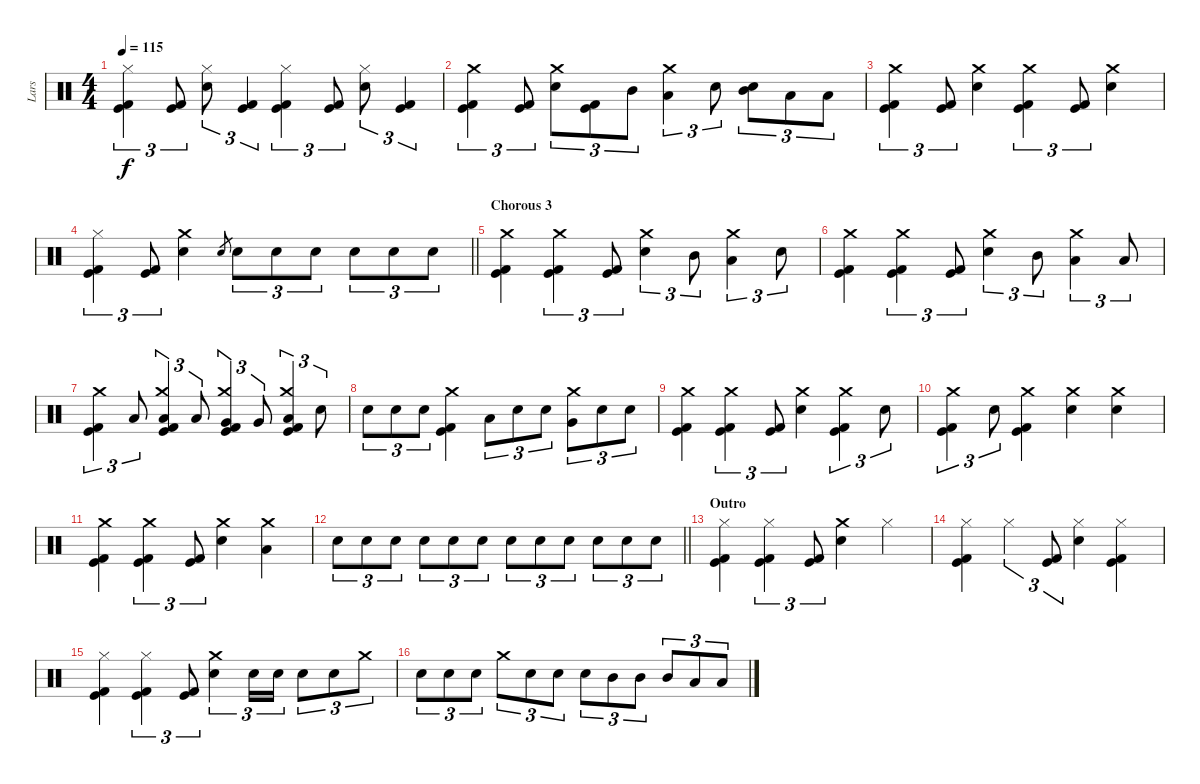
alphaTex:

\track ("Lars" "Lars") {instrument percussion}
\staff {score}
\articulation defaults
\ts (4 4)
\tempo 115
\clef neutral
\ks c
("Hi-Hat (closed)" "Kick (hit)" "Kick (hit) 2").4{tu (3 2) dy f} ("Kick (hit)" "Kick (hit) 2").8{tu (3 2)} ("Hi-Hat (closed)" "Electric Snare (hit)").8{tu (3 2)} ("Kick (hit)" "Kick (hit) 2").4{tu (3 2)} ("Hi-Hat (closed)" "Kick (hit)" "Kick (hit) 2").4{tu (3 2)} ("Kick (hit)" "Kick (hit) 2").8{tu (3 2)} ("Hi-Hat (closed)" "Electric Snare (hit)").8{tu (3 2)} ("Kick (hit)" "Kick (hit) 2").4{tu (3 2)} |
("Crash medium (hit)" "Kick (hit)" "Kick (hit) 2").4{tu (3 2)} ("Kick (hit)" "Kick (hit) 2").8{tu (3 2)} ("Crash medium (hit)" "Electric Snare (hit)").8{tu (3 2)} ("Kick (hit)" "Kick (hit) 2").8{tu (3 2)} "Mid Tom (hit)".8{tu (3 2)} ("Crash medium (hit)" "Low Tom (hit)").4{tu (3 2)} "Electric Snare (hit)".8{tu (3 2)} ("Electric Snare (hit)" "Mid Tom (hit)").8{tu (3 2)} "Low Tom (hit)".8{tu (3 2)} "Low Tom (hit)".8{tu (3 2)} |
("Crash medium (hit)" "Kick (hit)" "Kick (hit) 2").4{tu (3 2)} ("Kick (hit)" "Kick (hit) 2").8{tu (3 2)} ("Crash medium (hit)" "Electric Snare (hit)").4 ("Crash medium (hit)" "Kick (hit)" "Kick (hit) 2").4{tu (3 2)} ("Kick (hit)" "Kick (hit) 2").8{tu (3 2)} ("Crash medium (hit)" "Electric Snare (hit)").4 |
\barLineRight lightlight
("Hi-Hat (closed)" "Kick (hit)" "Kick (hit) 2").4{tu (3 2)} ("Kick (hit)" "Kick (hit) 2").8{tu (3 2)} ("Crash medium (hit)" "Electric Snare (hit)").4 "Electric Snare (hit)".8{gr} "Electric Snare (hit)".8{tu (3 2)} "Electric Snare (hit)".8{tu (3 2)} "Electric Snare (hit)".8{tu (3 2)} "Electric Snare (hit)".8{tu (3 2)} "Electric Snare (hit)".8{tu (3 2)} "Electric Snare (hit)".8{tu (3 2)} |
\section ("" "Chorous 3")
("Crash medium (hit)" "Kick (hit)" "Kick (hit) 2").4 ("Crash medium (hit)" "Kick (hit)" "Kick (hit) 2").4{tu (3 2)} ("Kick (hit)" "Kick (hit) 2").8{tu (3 2)} ("Crash medium (hit)" "Electric Snare (hit)").4{tu (3 2)} "Mid Tom (hit)".8{tu (3 2)} ("Crash medium (hit)" "Low Tom (hit)").4{tu (3 2)} "Electric Snare (hit)".8{tu (3 2)} |
("Crash medium (hit)" "Kick (hit)" "Kick (hit) 2").4 ("Crash medium (hit)" "Kick (hit)" "Kick (hit) 2").4{tu (3 2)} ("Kick (hit)" "Kick (hit) 2").8{tu (3 2)} ("Crash medium (hit)" "Electric Snare (hit)").4{tu (3 2)} "Mid Tom (hit)".8{tu (3 2)} ("Crash medium (hit)" "Low Tom (hit)").4{tu (3 2)} "Low Tom (hit)".8{tu (3 2)} |
("Crash medium (hit)" "Kick (hit)" "Kick (hit) 2").4{tu (3 2)} "Low Tom (hit)".8{tu (3 2)} ("Crash medium (hit)" "Low Tom (hit)" "Kick (hit)" "Kick (hit) 2").4{tu (3 2)} "Low Tom (hit)".8{tu (3 2)} ("Crash medium (hit)" "Very Low Tom (hit)" "Kick (hit)" "Kick (hit) 2").4{tu (3 2)} "Very Low Tom (hit)".8{tu (3 2)} ("Crash medium (hit)" "Low Floor Tom (hit)" "Kick (hit)" "Kick (hit) 2").4{tu (3 2)} "Electric Snare (hit)".8{tu (3 2)} |
"Electric Snare (hit)".8{tu (3 2)} "Electric Snare (hit)".8{tu (3 2)} "Electric Snare (hit)".8{tu (3 2)} ("Crash medium (hit)" "Kick (hit)" "Kick (hit) 2").4 "Low Tom (hit)".8{tu (3 2)} "Electric Snare (hit)".8{tu (3 2)} "Electric Snare (hit)".8{tu (3 2)} ("Crash medium (hit)" "Very Low Tom (hit)").8{tu (3 2)} "Electric Snare (hit)".8{tu (3 2)} "Electric Snare (hit)".8{tu (3 2)} |
("Crash medium (hit)" "Kick (hit)" "Kick (hit) 2").4 ("Crash medium (hit)" "Kick (hit)" "Kick (hit) 2").4{tu (3 2)} ("Kick (hit)" "Kick (hit) 2").8{tu (3 2)} ("Crash medium (hit)" "Electric Snare (hit)").4 ("Crash medium (hit)" "Kick (hit)" "Kick (hit) 2").4{tu (3 2)} "Electric Snare (hit)".8{tu (3 2)} |
("Crash medium (hit)" "Kick (hit)" "Kick (hit) 2").4{tu (3 2)} "Electric Snare (hit)".8{tu (3 2)} ("Crash medium (hit)" "Kick (hit)" "Kick (hit) 2").4 ("Crash medium (hit)" "Electric Snare (hit)").4 ("Crash medium (hit)" "Electric Snare (hit)").4 |
("Crash medium (hit)" "Kick (hit)" "Kick (hit) 2").4 ("Crash medium (hit)" "Kick (hit)" "Kick (hit) 2").4{tu (3 2)} ("Kick (hit)" "Kick (hit) 2").8{tu (3 2)} ("Crash medium (hit)" "Electric Snare (hit)").4 ("Crash medium (hit)" "Low Tom (hit)").4 |
\barLineRight lightlight "Electric Snare (hit)".8{tu (3 2)} "Electric Snare (hit)".8{tu (3 2)} "Electric Snare (hit)".8{tu (3 2)} "Electric Snare (hit)".8{tu (3 2)} "Electric Snare (hit)".8{tu (3 2)} "Electric Snare (hit)".8{tu (3 2)} "Electric Snare (hit)".8{tu (3 2)} "Electric Snare (hit)".8{tu (3 2)} "Electric Snare (hit)".8{tu (3 2)} "Electric Snare (hit)".8{tu (3 2)} "Electric Snare (hit)".8{tu (3 2)} "Electric Snare (hit)".8{tu (3 2)}
|
\section ("" "Outro")
("Hi-Hat (closed)" "Kick (hit)" "Kick (hit) 2").4 ("Hi-Hat (closed)" "Kick (hit)" "Kick (hit) 2").4{tu (3 2)} ("Kick (hit)" "Kick (hit) 2").8{tu (3 2)} ("Crash medium (hit)" "Electric Snare (hit)").4 "Hi-Hat (closed)".4 |
("Hi-Hat (closed)" "Kick (hit)" "Kick (hit) 2").4 "Hi-Hat (closed)".4{tu (3 2)} ("Kick (hit)" "Kick (hit) 2").8{tu (3 2)} ("Hi-Hat (closed)" "Electric Snare (hit)").4 ("Hi-Hat (closed)" "Kick (hit)" "Kick (hit) 2").4 |
("Hi-Hat (closed)" "Kick (hit)" "Kick (hit) 2").4 ("Hi-Hat (closed)" "Kick (hit)" "Kick (hit) 2").4{tu (3 2)} ("Kick (hit)" "Kick (hit) 2").8{tu (3 2)} ("Crash medium (hit)" "Electric Snare (hit)").4{tu (3 2)} "Electric Snare (hit)".16{tu (3 2)} "Electric Snare (hit)".16{tu (3 2)} "Electric Snare (hit)".8{tu (3 2)} "Electric Snare (hit)".8{tu (3 2)} "Crash medium (hit)".8{tu (3 2)} |
"Electric Snare (hit)".8{tu (3 2)} "Electric Snare (hit)".8{tu (3 2)} "Electric Snare (hit)".8{tu (3 2)} "Crash medium (hit)".8{tu (3 2)} "Electric Snare (hit)".8{tu (3 2)} "Electric Snare (hit)".8{tu (3 2)} "Electric Snare (hit)".8{tu (3 2)} "Mid Tom (hit)".8{tu (3 2)} "Mid Tom (hit)".8{tu (3 2)} "Mid Tom (hit)".8{tu (3 2)} "Low Tom (hit)".8{tu (3 2)} "Low Tom (hit)".8{tu (3 2)}
